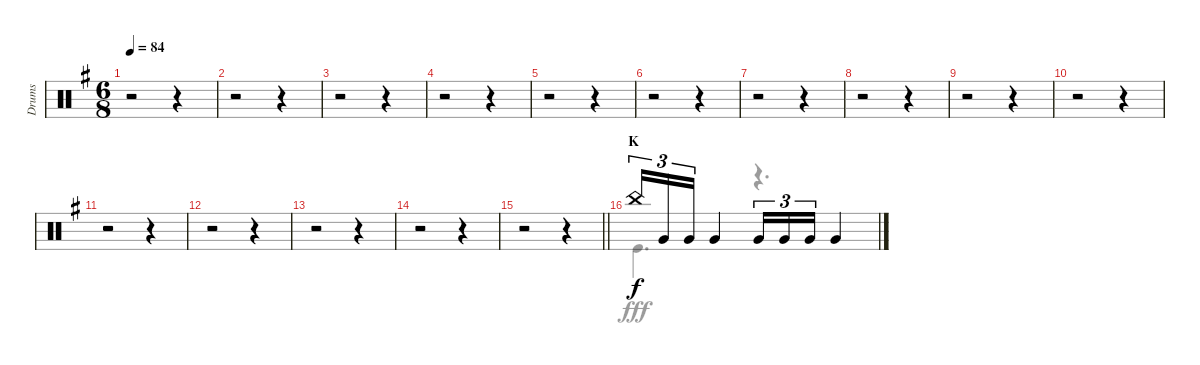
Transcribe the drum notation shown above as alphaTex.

\track ("Drums" "Drums") {instrument percussion}
\staff {score}
\articulation defaults
\voice
\ts (6 8)
\tempo 84
\clef neutral
\ks g
r.2{dy f} r.4 |
r.2 r.4 |
r.2 r.4 |
r.2 r.4 |
r.2 r.4 |
r.2 r.4 |
r.2 r.4 |
r.2 r.4 |
r.2 r.4 |
r.2 r.4 |
r.2 r.4 |
r.2 r.4 |
r.2 r.4 |
r.2 r.4 |
\barLineRight lightlight
r.2 r.4 |
\section ("" "K")
"China (hit)".16{tu (3 2)} "Very Low Tom (hit)".16{tu (3 2)} "Very Low Tom (hit)".16{tu (3 2)} "Very Low Tom (hit)".4 "Very Low Tom (hit)".16{tu (3 2)} "Very Low Tom (hit)".16{tu (3 2)} "Very Low Tom (hit)".16{tu (3 2)} "Very Low Tom (hit)".4
\voice
\clef neutral
\ottava regular
\simile none
\ks g
r.2{dy fff} r.4 |
r.2 r.4 |
r.2 r.4 |
r.2 r.4 |
r.2 r.4 |
r.2 r.4 |
r.2 r.4 |
r.2 r.4 |
r.2 r.4 |
r.2 r.4 |
r.2 r.4 |
r.2 r.4 |
r.2 r.4 |
r.2 r.4 |
\barLineRight lightlight
r.2 r.4 |
"Kick (hit)".4{d} r.4{d}
